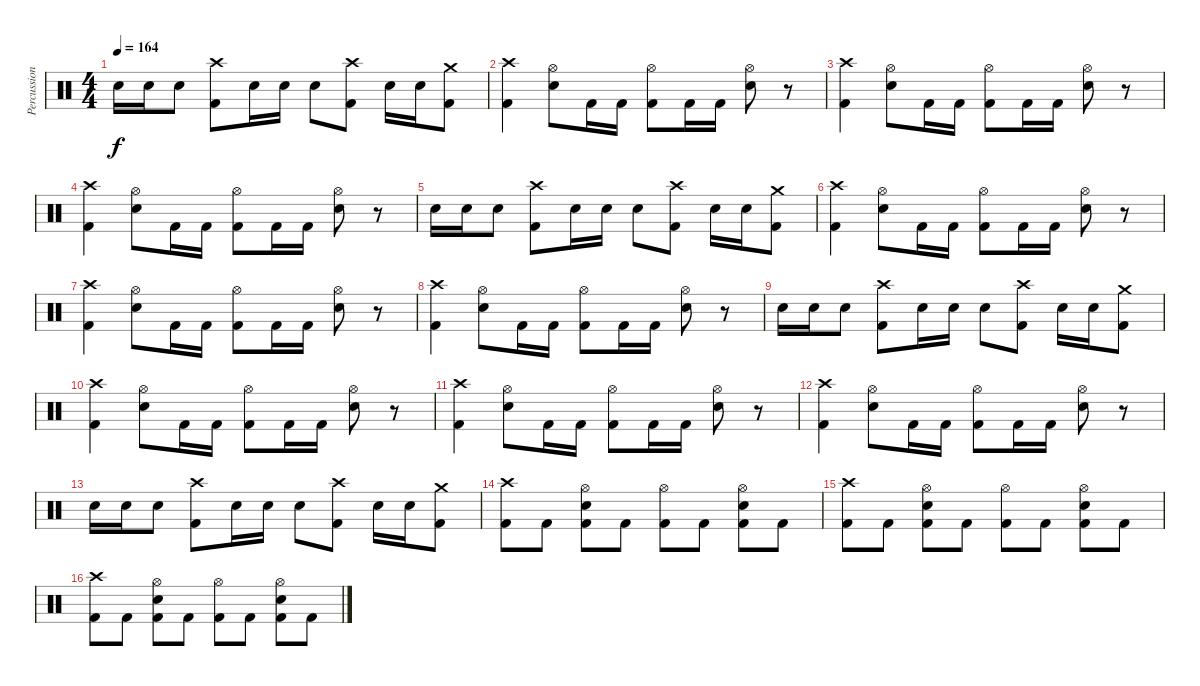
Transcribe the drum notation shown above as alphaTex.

\track ("Percussion" "Percussion") {instrument percussion}
\staff {score}
\articulation defaults
\ts (4 4)
\tempo 164
\clef neutral
\ks c "Snare (hit) 2".16{dy f} "Snare (hit) 2".16 "Snare (hit) 2".8
("Crash high (hit)" "Kick (hit) 2").8 "Snare (hit) 2".16 "Snare (hit) 2".16 "Snare (hit) 2".8 ("Crash high (hit)" "Kick (hit) 2").8 "Snare (hit) 2".16 "Snare (hit) 2".16 ("Crash medium (hit)" "Kick (hit) 2").8 |
("Crash high (hit)" "Kick (hit) 2").4 ("Hi-Hat (open)" "Snare (hit) 2").8 "Kick (hit) 2".16 "Kick (hit) 2".16 ("Hi-Hat (open)" "Kick (hit) 2").8 "Kick (hit) 2".16 "Kick (hit) 2".16 ("Hi-Hat (open)" "Snare (hit) 2").8 r.8 |
("Crash high (hit)" "Kick (hit) 2").4 ("Hi-Hat (open)" "Snare (hit) 2").8 "Kick (hit) 2".16 "Kick (hit) 2".16 ("Hi-Hat (open)" "Kick (hit) 2").8 "Kick (hit) 2".16 "Kick (hit) 2".16 ("Hi-Hat (open)" "Snare (hit) 2").8 r.8 |
("Crash high (hit)" "Kick (hit) 2").4 ("Hi-Hat (open)" "Snare (hit) 2").8 "Kick (hit) 2".16 "Kick (hit) 2".16 ("Hi-Hat (open)" "Kick (hit) 2").8 "Kick (hit) 2".16 "Kick (hit) 2".16 ("Hi-Hat (open)" "Snare (hit) 2").8 r.8 |
"Snare (hit) 2".16 "Snare (hit) 2".16 "Snare (hit) 2".8 ("Crash high (hit)" "Kick (hit) 2").8 "Snare (hit) 2".16 "Snare (hit) 2".16 "Snare (hit) 2".8 ("Crash high (hit)" "Kick (hit) 2").8 "Snare (hit) 2".16 "Snare (hit) 2".16 ("Crash medium (hit)" "Kick (hit) 2").8 |
("Crash high (hit)" "Kick (hit) 2").4 ("Hi-Hat (open)" "Snare (hit) 2").8 "Kick (hit) 2".16 "Kick (hit) 2".16 ("Hi-Hat (open)" "Kick (hit) 2").8 "Kick (hit) 2".16 "Kick (hit) 2".16 ("Hi-Hat (open)" "Snare (hit) 2").8 r.8 |
("Crash high (hit)" "Kick (hit) 2").4 ("Hi-Hat (open)" "Snare (hit) 2").8 "Kick (hit) 2".16 "Kick (hit) 2".16 ("Hi-Hat (open)" "Kick (hit) 2").8 "Kick (hit) 2".16 "Kick (hit) 2".16 ("Hi-Hat (open)" "Snare (hit) 2").8 r.8 |
("Crash high (hit)" "Kick (hit) 2").4 ("Hi-Hat (open)" "Snare (hit) 2").8 "Kick (hit) 2".16 "Kick (hit) 2".16 ("Hi-Hat (open)" "Kick (hit) 2").8 "Kick (hit) 2".16 "Kick (hit) 2".16 ("Hi-Hat (open)" "Snare (hit) 2").8 r.8 |
"Snare (hit) 2".16 "Snare (hit) 2".16 "Snare (hit) 2".8 ("Crash high (hit)" "Kick (hit) 2").8 "Snare (hit) 2".16 "Snare (hit) 2".16 "Snare (hit) 2".8 ("Crash high (hit)" "Kick (hit) 2").8 "Snare (hit) 2".16 "Snare (hit) 2".16 ("Crash medium (hit)" "Kick (hit) 2").8 |
("Crash high (hit)" "Kick (hit) 2").4 ("Hi-Hat (open)" "Snare (hit) 2").8 "Kick (hit) 2".16 "Kick (hit) 2".16 ("Hi-Hat (open)" "Kick (hit) 2").8 "Kick (hit) 2".16 "Kick (hit) 2".16 ("Hi-Hat (open)" "Snare (hit) 2").8 r.8 |
("Crash high (hit)" "Kick (hit) 2").4 ("Hi-Hat (open)" "Snare (hit) 2").8 "Kick (hit) 2".16 "Kick (hit) 2".16 ("Hi-Hat (open)" "Kick (hit) 2").8 "Kick (hit) 2".16 "Kick (hit) 2".16 ("Hi-Hat (open)" "Snare (hit) 2").8 r.8 |
("Crash high (hit)" "Kick (hit) 2").4 ("Hi-Hat (open)" "Snare (hit) 2").8 "Kick (hit) 2".16 "Kick (hit) 2".16 ("Hi-Hat (open)" "Kick (hit) 2").8 "Kick (hit) 2".16 "Kick (hit) 2".16 ("Hi-Hat (open)" "Snare (hit) 2").8 r.8 |
"Snare (hit) 2".16 "Snare (hit) 2".16 "Snare (hit) 2".8 ("Crash high (hit)" "Kick (hit) 2").8 "Snare (hit) 2".16 "Snare (hit) 2".16 "Snare (hit) 2".8 ("Crash high (hit)" "Kick (hit) 2").8 "Snare (hit) 2".16 "Snare (hit) 2".16 ("Crash medium (hit)" "Kick (hit) 2").8 |
("Crash high (hit)" "Kick (hit) 2").8 "Kick (hit) 2".8 ("Hi-Hat (open)" "Snare (hit) 2" "Kick (hit) 2").8 "Kick (hit) 2".8 ("Hi-Hat (open)" "Kick (hit) 2").8 "Kick (hit) 2".8 ("Hi-Hat (open)" "Snare (hit) 2" "Kick (hit) 2").8 "Kick (hit) 2".8 |
("Crash high (hit)" "Kick (hit) 2").8 "Kick (hit) 2".8 ("Hi-Hat (open)" "Snare (hit) 2" "Kick (hit) 2").8 "Kick (hit) 2".8 ("Hi-Hat (open)" "Kick (hit) 2").8 "Kick (hit) 2".8 ("Hi-Hat (open)" "Snare (hit) 2" "Kick (hit) 2").8 "Kick (hit) 2".8 |
("Crash high (hit)" "Kick (hit) 2").8 "Kick (hit) 2".8 ("Hi-Hat (open)" "Snare (hit) 2" "Kick (hit) 2").8 "Kick (hit) 2".8 ("Hi-Hat (open)" "Kick (hit) 2").8 "Kick (hit) 2".8 ("Hi-Hat (open)" "Snare (hit) 2" "Kick (hit) 2").8 "Kick (hit) 2".8
